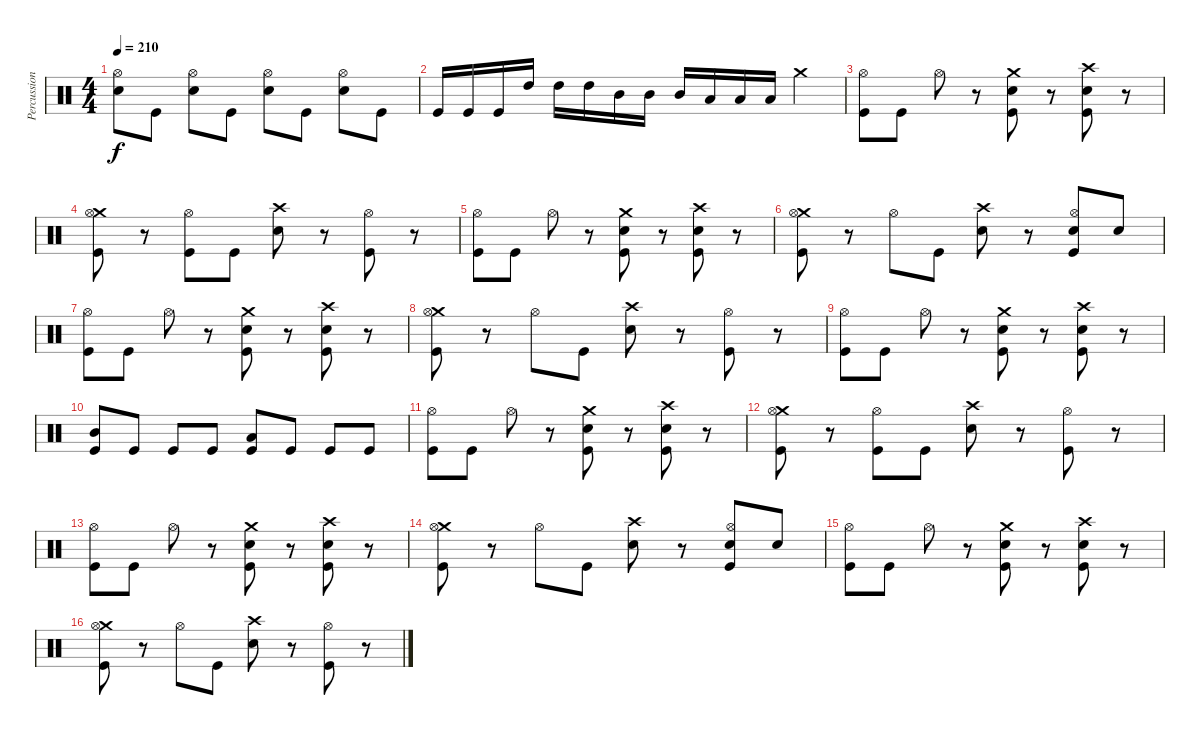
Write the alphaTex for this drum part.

\track ("Percussion" "Percussion") {instrument percussion}
\staff {score}
\articulation defaults
\ts (4 4)
\tempo 210
\clef neutral
\ks c
("Snare (hit) 2" "Hi-Hat (open)").8{dy f} "Kick (hit)".8 ("Snare (hit) 2" "Hi-Hat (open)").8 "Kick (hit)".8 ("Snare (hit) 2" "Hi-Hat (open)").8 "Kick (hit)".8 ("Snare (hit) 2" "Hi-Hat (open)").8 "Kick (hit)".8 |
"Kick (hit)".16 "Kick (hit)".16 "Kick (hit)".16 "High Tom (hit)".16 "High Tom (hit)".16 "High Tom (hit)".16 "Mid Tom (hit)".16 "Mid Tom (hit)".16 "Mid Tom (hit)".16 "Low Tom (hit)".16 "Low Tom (hit)".16 "Low Tom (hit)".16 "Crash medium (hit)".4 |
("Hi-Hat (open)" "Kick (hit)").8 "Kick (hit)".8 "Hi-Hat (open)".8 r.8 ("Crash medium (hit)" "Snare (hit) 2" "Kick (hit)").8 r.8 ("Crash high (hit)" "Snare (hit) 2" "Kick (hit)").8 r.8 |
("Crash medium (hit)" "Hi-Hat (open)" "Kick (hit)").8 r.8 ("Hi-Hat (open)" "Kick (hit)").8 "Kick (hit)".8 ("Crash high (hit)" "Snare (hit) 2").8 r.8 ("Hi-Hat (open)" "Kick (hit)").8 r.8 |
("Hi-Hat (open)" "Kick (hit)").8 "Kick (hit)".8 "Hi-Hat (open)".8 r.8 ("Crash medium (hit)" "Snare (hit) 2" "Kick (hit)").8 r.8 ("Crash high (hit)" "Snare (hit) 2" "Kick (hit)").8 r.8 |
("Crash medium (hit)" "Hi-Hat (open)" "Kick (hit)").8 r.8 "Hi-Hat (open)".8 "Kick (hit)".8 ("Crash high (hit)" "Snare (hit) 2").8 r.8 ("Snare (hit) 2" "Hi-Hat (open)" "Kick (hit)").8 "Snare (hit) 2".8 |
("Hi-Hat (open)" "Kick (hit)").8 "Kick (hit)".8 "Hi-Hat (open)".8 r.8 ("Crash medium (hit)" "Snare (hit) 2" "Kick (hit)").8 r.8 ("Crash high (hit)" "Snare (hit) 2" "Kick (hit)").8 r.8 |
("Crash medium (hit)" "Hi-Hat (open)" "Kick (hit)").8 r.8 "Hi-Hat (open)".8 "Kick (hit)".8 ("Crash high (hit)" "Snare (hit) 2").8 r.8 ("Hi-Hat (open)" "Kick (hit)").8 r.8 |
("Hi-Hat (open)" "Kick (hit)").8 "Kick (hit)".8 "Hi-Hat (open)".8 r.8 ("Crash medium (hit)" "Snare (hit) 2" "Kick (hit)").8 r.8 ("Crash high (hit)" "Snare (hit) 2" "Kick (hit)").8 r.8 |
("Mid Tom (hit)" "Kick (hit)").8 "Kick (hit)".8 "Kick (hit)".8 "Kick (hit)".8 ("Low Tom (hit)" "Kick (hit)").8 "Kick (hit)".8 "Kick (hit)".8 "Kick (hit)".8 |
("Hi-Hat (open)" "Kick (hit)").8 "Kick (hit)".8 "Hi-Hat (open)".8 r.8 ("Crash medium (hit)" "Snare (hit) 2" "Kick (hit)").8 r.8 ("Crash high (hit)" "Snare (hit) 2" "Kick (hit)").8 r.8 |
("Crash medium (hit)" "Hi-Hat (open)" "Kick (hit)").8 r.8 ("Hi-Hat (open)" "Kick (hit)").8 "Kick (hit)".8 ("Crash high (hit)" "Snare (hit) 2").8 r.8 ("Hi-Hat (open)" "Kick (hit)").8 r.8 |
("Hi-Hat (open)" "Kick (hit)").8 "Kick (hit)".8 "Hi-Hat (open)".8 r.8 ("Crash medium (hit)" "Snare (hit) 2" "Kick (hit)").8 r.8 ("Crash high (hit)" "Snare (hit) 2" "Kick (hit)").8 r.8 |
("Crash medium (hit)" "Hi-Hat (open)" "Kick (hit)").8 r.8 "Hi-Hat (open)".8 "Kick (hit)".8 ("Crash high (hit)" "Snare (hit) 2").8 r.8 ("Snare (hit) 2" "Hi-Hat (open)" "Kick (hit)").8 "Snare (hit) 2".8 |
("Hi-Hat (open)" "Kick (hit)").8 "Kick (hit)".8 "Hi-Hat (open)".8 r.8 ("Crash medium (hit)" "Snare (hit) 2" "Kick (hit)").8 r.8 ("Crash high (hit)" "Snare (hit) 2" "Kick (hit)").8 r.8 |
("Crash medium (hit)" "Hi-Hat (open)" "Kick (hit)").8 r.8 "Hi-Hat (open)".8 "Kick (hit)".8 ("Crash high (hit)" "Snare (hit) 2").8 r.8 ("Hi-Hat (open)" "Kick (hit)").8 r.8
